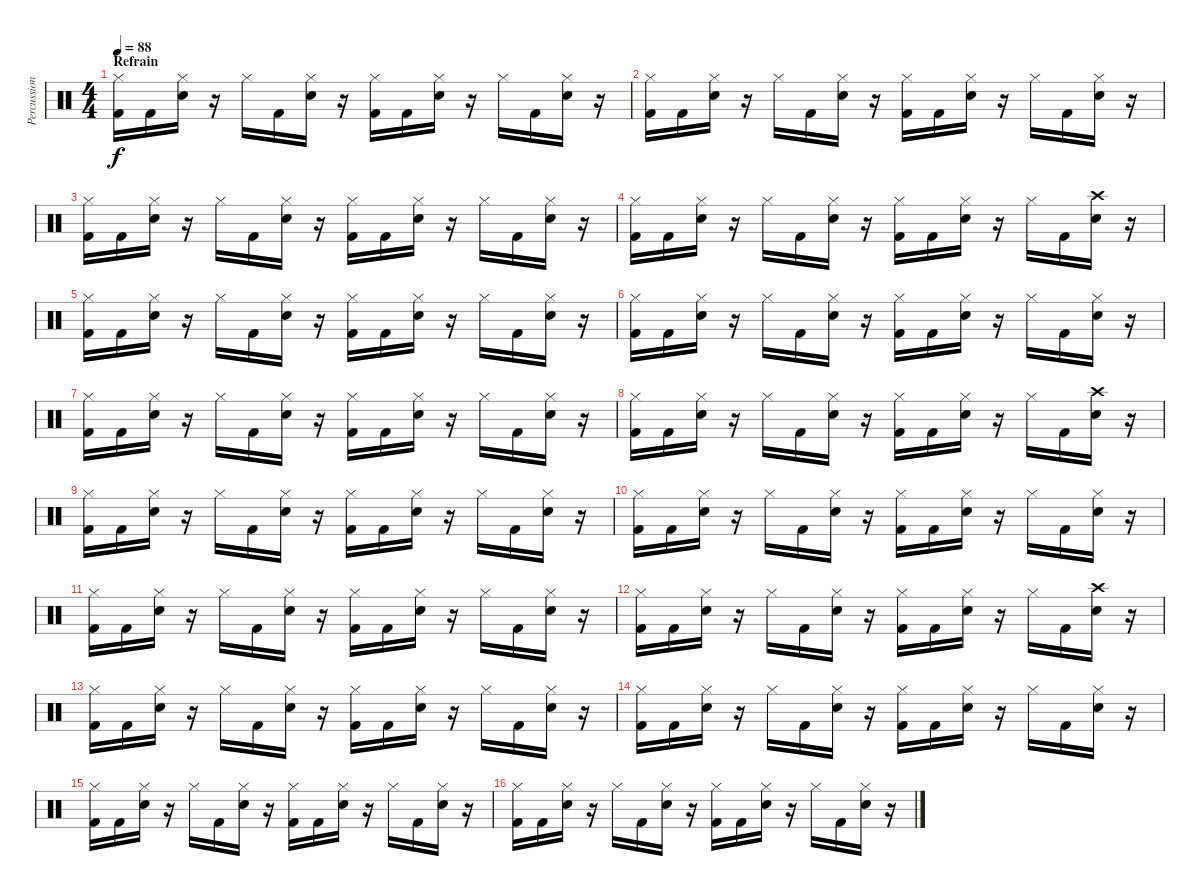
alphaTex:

\track ("Percussions" "Percussion") {instrument percussion}
\staff {score}
\articulation defaults
\ts (4 4)
\section ("" "Refrain")
\tempo 88
\clef neutral
\ks c
("Hi-Hat (closed)" "Kick (hit) 2").16{dy f} "Kick (hit) 2".16 ("Hi-Hat (closed)" "Snare (hit) 2").16 r.16 "Hi-Hat (closed)".16 "Kick (hit) 2".16 ("Hi-Hat (closed)" "Snare (hit) 2").16 r.16 ("Hi-Hat (closed)" "Kick (hit) 2").16 "Kick (hit) 2".16 ("Hi-Hat (closed)" "Snare (hit) 2").16 r.16 "Hi-Hat (closed)".16 "Kick (hit) 2".16 ("Hi-Hat (closed)" "Snare (hit) 2").16 r.16 |
("Hi-Hat (closed)" "Kick (hit) 2").16 "Kick (hit) 2".16 ("Hi-Hat (closed)" "Snare (hit) 2").16 r.16 "Hi-Hat (closed)".16 "Kick (hit) 2".16 ("Hi-Hat (closed)" "Snare (hit) 2").16 r.16 ("Hi-Hat (closed)" "Kick (hit) 2").16 "Kick (hit) 2".16 ("Hi-Hat (closed)" "Snare (hit) 2").16 r.16 "Hi-Hat (closed)".16 "Kick (hit) 2".16 ("Hi-Hat (closed)" "Snare (hit) 2").16 r.16 |
("Hi-Hat (closed)" "Kick (hit) 2").16 "Kick (hit) 2".16 ("Hi-Hat (closed)" "Snare (hit) 2").16 r.16 "Hi-Hat (closed)".16 "Kick (hit) 2".16 ("Hi-Hat (closed)" "Snare (hit) 2").16 r.16 ("Hi-Hat (closed)" "Kick (hit) 2").16 "Kick (hit) 2".16 ("Hi-Hat (closed)" "Snare (hit) 2").16 r.16 "Hi-Hat (closed)".16 "Kick (hit) 2".16 ("Hi-Hat (closed)" "Snare (hit) 2").16 r.16 |
("Hi-Hat (closed)" "Kick (hit) 2").16 "Kick (hit) 2".16 ("Hi-Hat (closed)" "Snare (hit) 2").16 r.16 "Hi-Hat (closed)".16 "Kick (hit) 2".16 ("Hi-Hat (closed)" "Snare (hit) 2").16 r.16 ("Hi-Hat (closed)" "Kick (hit) 2").16 "Kick (hit) 2".16 ("Hi-Hat (closed)" "Snare (hit) 2").16 r.16 "Hi-Hat (closed)".16 "Kick (hit) 2".16 ("Crash high (hit)" "Snare (hit) 2").16 r.16 |
("Hi-Hat (closed)" "Kick (hit) 2").16 "Kick (hit) 2".16 ("Hi-Hat (closed)" "Snare (hit) 2").16 r.16 "Hi-Hat (closed)".16 "Kick (hit) 2".16 ("Hi-Hat (closed)" "Snare (hit) 2").16 r.16 ("Hi-Hat (closed)" "Kick (hit) 2").16 "Kick (hit) 2".16 ("Hi-Hat (closed)" "Snare (hit) 2").16 r.16 "Hi-Hat (closed)".16 "Kick (hit) 2".16 ("Hi-Hat (closed)" "Snare (hit) 2").16 r.16 |
("Hi-Hat (closed)" "Kick (hit) 2").16 "Kick (hit) 2".16 ("Hi-Hat (closed)" "Snare (hit) 2").16 r.16 "Hi-Hat (closed)".16 "Kick (hit) 2".16 ("Hi-Hat (closed)" "Snare (hit) 2").16 r.16 ("Hi-Hat (closed)" "Kick (hit) 2").16 "Kick (hit) 2".16 ("Hi-Hat (closed)" "Snare (hit) 2").16 r.16 "Hi-Hat (closed)".16 "Kick (hit) 2".16 ("Hi-Hat (closed)" "Snare (hit) 2").16 r.16 |
("Hi-Hat (closed)" "Kick (hit) 2").16 "Kick (hit) 2".16 ("Hi-Hat (closed)" "Snare (hit) 2").16 r.16 "Hi-Hat (closed)".16 "Kick (hit) 2".16 ("Hi-Hat (closed)" "Snare (hit) 2").16 r.16 ("Hi-Hat (closed)" "Kick (hit) 2").16 "Kick (hit) 2".16 ("Hi-Hat (closed)" "Snare (hit) 2").16 r.16 "Hi-Hat (closed)".16 "Kick (hit) 2".16 ("Hi-Hat (closed)" "Snare (hit) 2").16 r.16 |
("Hi-Hat (closed)" "Kick (hit) 2").16 "Kick (hit) 2".16 ("Hi-Hat (closed)" "Snare (hit) 2").16 r.16 "Hi-Hat (closed)".16 "Kick (hit) 2".16 ("Hi-Hat (closed)" "Snare (hit) 2").16 r.16 ("Hi-Hat (closed)" "Kick (hit) 2").16 "Kick (hit) 2".16 ("Hi-Hat (closed)" "Snare (hit) 2").16 r.16 "Hi-Hat (closed)".16 "Kick (hit) 2".16 ("Crash high (hit)" "Snare (hit) 2").16 r.16 |
("Hi-Hat (closed)" "Kick (hit) 2").16 "Kick (hit) 2".16 ("Hi-Hat (closed)" "Snare (hit) 2").16 r.16 "Hi-Hat (closed)".16 "Kick (hit) 2".16 ("Hi-Hat (closed)" "Snare (hit) 2").16 r.16 ("Hi-Hat (closed)" "Kick (hit) 2").16 "Kick (hit) 2".16 ("Hi-Hat (closed)" "Snare (hit) 2").16 r.16 "Hi-Hat (closed)".16 "Kick (hit) 2".16 ("Hi-Hat (closed)" "Snare (hit) 2").16 r.16 |
("Hi-Hat (closed)" "Kick (hit) 2").16 "Kick (hit) 2".16 ("Hi-Hat (closed)" "Snare (hit) 2").16 r.16 "Hi-Hat (closed)".16 "Kick (hit) 2".16 ("Hi-Hat (closed)" "Snare (hit) 2").16 r.16 ("Hi-Hat (closed)" "Kick (hit) 2").16 "Kick (hit) 2".16 ("Hi-Hat (closed)" "Snare (hit) 2").16 r.16 "Hi-Hat (closed)".16 "Kick (hit) 2".16 ("Hi-Hat (closed)" "Snare (hit) 2").16 r.16 |
("Hi-Hat (closed)" "Kick (hit) 2").16 "Kick (hit) 2".16 ("Hi-Hat (closed)" "Snare (hit) 2").16 r.16 "Hi-Hat (closed)".16 "Kick (hit) 2".16 ("Hi-Hat (closed)" "Snare (hit) 2").16 r.16 ("Hi-Hat (closed)" "Kick (hit) 2").16 "Kick (hit) 2".16 ("Hi-Hat (closed)" "Snare (hit) 2").16 r.16 "Hi-Hat (closed)".16 "Kick (hit) 2".16 ("Hi-Hat (closed)" "Snare (hit) 2").16 r.16 |
("Hi-Hat (closed)" "Kick (hit) 2").16 "Kick (hit) 2".16 ("Hi-Hat (closed)" "Snare (hit) 2").16 r.16 "Hi-Hat (closed)".16 "Kick (hit) 2".16 ("Hi-Hat (closed)" "Snare (hit) 2").16 r.16 ("Hi-Hat (closed)" "Kick (hit) 2").16 "Kick (hit) 2".16 ("Hi-Hat (closed)" "Snare (hit) 2").16 r.16 "Hi-Hat (closed)".16 "Kick (hit) 2".16 ("Crash high (hit)" "Snare (hit) 2").16 r.16 |
("Hi-Hat (closed)" "Kick (hit) 2").16 "Kick (hit) 2".16 ("Hi-Hat (closed)" "Snare (hit) 2").16 r.16 "Hi-Hat (closed)".16 "Kick (hit) 2".16 ("Hi-Hat (closed)" "Snare (hit) 2").16 r.16 ("Hi-Hat (closed)" "Kick (hit) 2").16 "Kick (hit) 2".16 ("Hi-Hat (closed)" "Snare (hit) 2").16 r.16 "Hi-Hat (closed)".16 "Kick (hit) 2".16 ("Hi-Hat (closed)" "Snare (hit) 2").16 r.16 |
("Hi-Hat (closed)" "Kick (hit) 2").16 "Kick (hit) 2".16 ("Hi-Hat (closed)" "Snare (hit) 2").16 r.16 "Hi-Hat (closed)".16 "Kick (hit) 2".16 ("Hi-Hat (closed)" "Snare (hit) 2").16 r.16 ("Hi-Hat (closed)" "Kick (hit) 2").16 "Kick (hit) 2".16 ("Hi-Hat (closed)" "Snare (hit) 2").16 r.16 "Hi-Hat (closed)".16 "Kick (hit) 2".16 ("Hi-Hat (closed)" "Snare (hit) 2").16 r.16 |
("Hi-Hat (closed)" "Kick (hit) 2").16 "Kick (hit) 2".16 ("Hi-Hat (closed)" "Snare (hit) 2").16 r.16 "Hi-Hat (closed)".16 "Kick (hit) 2".16 ("Hi-Hat (closed)" "Snare (hit) 2").16 r.16 ("Hi-Hat (closed)" "Kick (hit) 2").16 "Kick (hit) 2".16 ("Hi-Hat (closed)" "Snare (hit) 2").16 r.16 "Hi-Hat (closed)".16 "Kick (hit) 2".16 ("Hi-Hat (closed)" "Snare (hit) 2").16 r.16 |
("Hi-Hat (closed)" "Kick (hit) 2").16 "Kick (hit) 2".16 ("Hi-Hat (closed)" "Snare (hit) 2").16 r.16 "Hi-Hat (closed)".16 "Kick (hit) 2".16 ("Hi-Hat (closed)" "Snare (hit) 2").16 r.16 ("Hi-Hat (closed)" "Kick (hit) 2").16 "Kick (hit) 2".16 ("Hi-Hat (closed)" "Snare (hit) 2").16 r.16 "Hi-Hat (closed)".16 "Kick (hit) 2".16 ("Hi-Hat (closed)" "Snare (hit) 2").16 r.16
